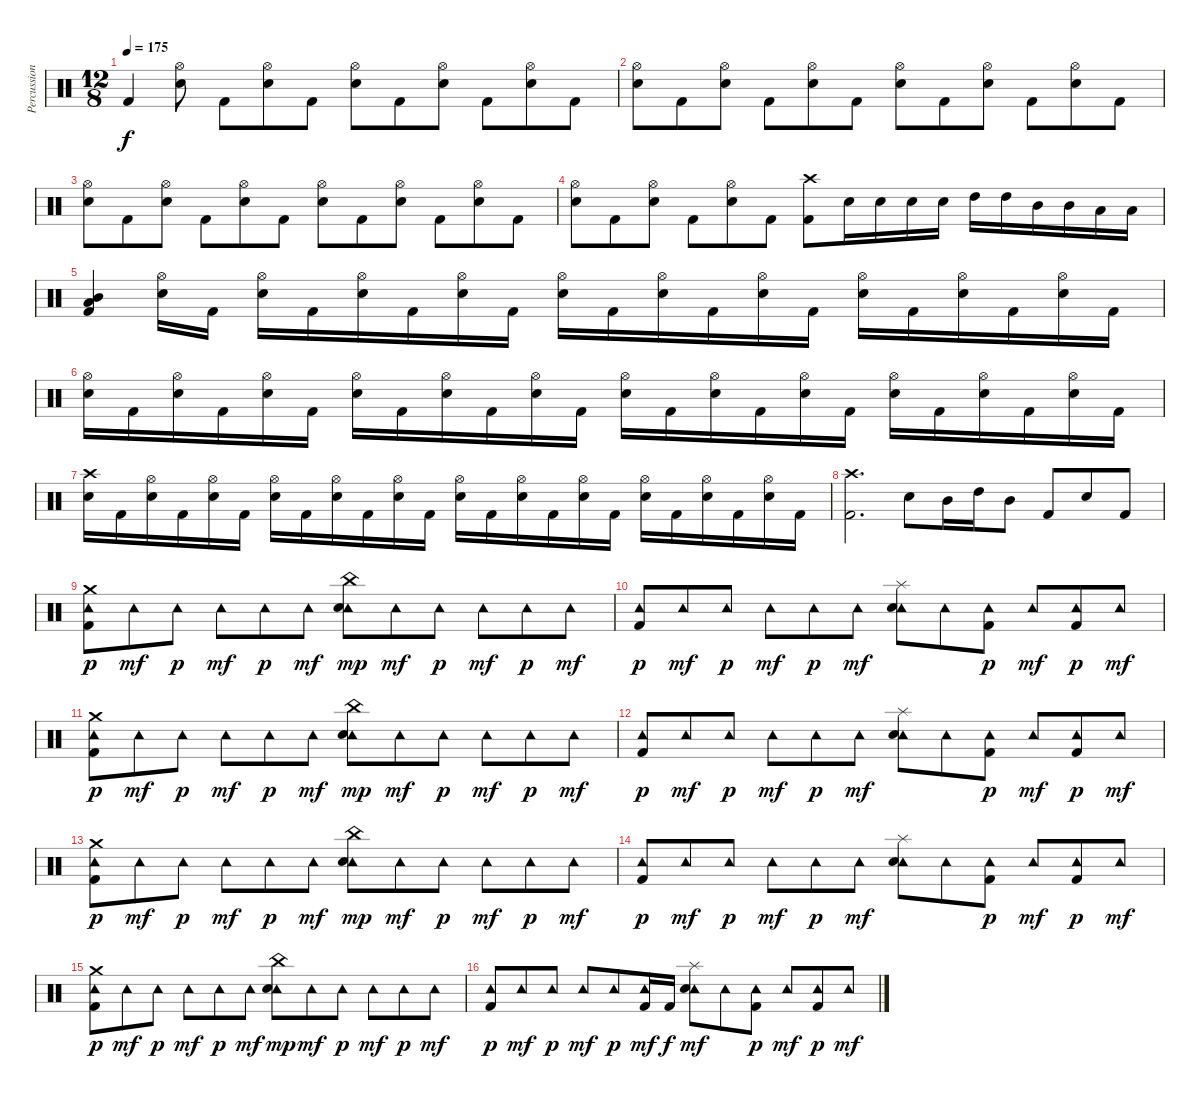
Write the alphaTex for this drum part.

\track ("Percussion" "Percussion") {instrument percussion}
\staff {score}
\articulation defaults
\ts (12 8)
\tempo 175
\clef neutral
\ks c "Kick (hit) 2".4{dy f}
("Hi-Hat (open)" "Electric Snare (hit)").8 "Kick (hit) 2".8 ("Hi-Hat (open)" "Electric Snare (hit)").8 "Kick (hit) 2".8 ("Hi-Hat (open)" "Electric Snare (hit)").8 "Kick (hit) 2".8 ("Hi-Hat (open)" "Electric Snare (hit)").8 "Kick (hit) 2".8 ("Hi-Hat (open)" "Electric Snare (hit)").8 "Kick (hit) 2".8 |
("Hi-Hat (open)" "Electric Snare (hit)").8 "Kick (hit) 2".8 ("Hi-Hat (open)" "Electric Snare (hit)").8 "Kick (hit) 2".8 ("Hi-Hat (open)" "Electric Snare (hit)").8 "Kick (hit) 2".8 ("Hi-Hat (open)" "Electric Snare (hit)").8 "Kick (hit) 2".8 ("Hi-Hat (open)" "Electric Snare (hit)").8 "Kick (hit) 2".8 ("Hi-Hat (open)" "Electric Snare (hit)").8 "Kick (hit) 2".8 |
("Hi-Hat (open)" "Electric Snare (hit)").8 "Kick (hit) 2".8 ("Hi-Hat (open)" "Electric Snare (hit)").8 "Kick (hit) 2".8 ("Hi-Hat (open)" "Electric Snare (hit)").8 "Kick (hit) 2".8 ("Hi-Hat (open)" "Electric Snare (hit)").8 "Kick (hit) 2".8 ("Hi-Hat (open)" "Electric Snare (hit)").8 "Kick (hit) 2".8 ("Hi-Hat (open)" "Electric Snare (hit)").8 "Kick (hit) 2".8 |
("Hi-Hat (open)" "Electric Snare (hit)").8 "Kick (hit) 2".8 ("Hi-Hat (open)" "Electric Snare (hit)").8 "Kick (hit) 2".8 ("Hi-Hat (open)" "Electric Snare (hit)").8 "Kick (hit) 2".8 ("Crash high (hit)" "Kick (hit) 2").8 "Electric Snare (hit)".16 "Electric Snare (hit)".16 "Electric Snare (hit)".16 "Electric Snare (hit)".16 "High Tom (hit)".16 "High Tom (hit)".16 "Mid Tom (hit)".16 "Mid Tom (hit)".16 "Low Tom (hit)".16 "Low Tom (hit)".16 |
("Mid Tom (hit)" "Low Tom (hit)" "Kick (hit) 2").4 ("Hi-Hat (open)" "Electric Snare (hit)").16 "Kick (hit) 2".16 ("Hi-Hat (open)" "Electric Snare (hit)").16 "Kick (hit) 2".16 ("Hi-Hat (open)" "Electric Snare (hit)").16 "Kick (hit) 2".16 ("Hi-Hat (open)" "Electric Snare (hit)").16 "Kick (hit) 2".16 ("Hi-Hat (open)" "Electric Snare (hit)").16 "Kick (hit) 2".16 ("Hi-Hat (open)" "Electric Snare (hit)").16 "Kick (hit) 2".16 ("Hi-Hat (open)" "Electric Snare (hit)").16 "Kick (hit) 2".16 ("Hi-Hat (open)" "Electric Snare (hit)").16 "Kick (hit) 2".16 ("Hi-Hat (open)" "Electric Snare (hit)").16 "Kick (hit) 2".16 ("Hi-Hat (open)" "Electric Snare (hit)").16 "Kick (hit) 2".16 |
("Hi-Hat (open)" "Electric Snare (hit)").16 "Kick (hit) 2".16 ("Hi-Hat (open)" "Electric Snare (hit)").16 "Kick (hit) 2".16 ("Hi-Hat (open)" "Electric Snare (hit)").16 "Kick (hit) 2".16 ("Hi-Hat (open)" "Electric Snare (hit)").16 "Kick (hit) 2".16 ("Hi-Hat (open)" "Electric Snare (hit)").16 "Kick (hit) 2".16 ("Hi-Hat (open)" "Electric Snare (hit)").16 "Kick (hit) 2".16 ("Hi-Hat (open)" "Electric Snare (hit)").16 "Kick (hit) 2".16 ("Hi-Hat (open)" "Electric Snare (hit)").16 "Kick (hit) 2".16 ("Hi-Hat (open)" "Electric Snare (hit)").16 "Kick (hit) 2".16 ("Hi-Hat (open)" "Electric Snare (hit)").16 "Kick (hit) 2".16 ("Hi-Hat (open)" "Electric Snare (hit)").16 "Kick (hit) 2".16 ("Hi-Hat (open)" "Electric Snare (hit)").16 "Kick (hit) 2".16 |
("Crash high (hit)" "Electric Snare (hit)").16 "Kick (hit) 2".16 ("Hi-Hat (open)" "Electric Snare (hit)").16 "Kick (hit) 2".16 ("Hi-Hat (open)" "Electric Snare (hit)").16 "Kick (hit) 2".16 ("Hi-Hat (open)" "Electric Snare (hit)").16 "Kick (hit) 2".16 ("Hi-Hat (open)" "Electric Snare (hit)").16 "Kick (hit) 2".16 ("Hi-Hat (open)" "Electric Snare (hit)").16 "Kick (hit) 2".16 ("Hi-Hat (open)" "Electric Snare (hit)").16 "Kick (hit) 2".16 ("Hi-Hat (open)" "Electric Snare (hit)").16 "Kick (hit) 2".16 ("Hi-Hat (open)" "Electric Snare (hit)").16 "Kick (hit) 2".16 ("Hi-Hat (open)" "Electric Snare (hit)").16 "Kick (hit) 2".16 ("Hi-Hat (open)" "Electric Snare (hit)").16 "Kick (hit) 2".16 ("Hi-Hat (open)" "Electric Snare (hit)").16 "Kick (hit) 2".16 |
("Crash high (hit)" "Kick (hit) 2").2{d} "Electric Snare (hit)".8 "Mid Tom (hit)".16 "High Tom (hit)".16 "Mid Tom (hit)".8 "Kick (hit) 2".8 "Electric Snare (hit)".8 "Kick (hit) 2".8 |
("Tambourine (hit)" "Crash medium (hit)" "Kick (hit) 2").8{dy p} "Tambourine (hit)".8{dy mf} "Tambourine (hit)".8{dy p} "Tambourine (hit)".8{dy mf} "Tambourine (hit)".8{dy p} "Tambourine (hit)".8{dy mf} ("Tambourine (hit)" "China (hit)" "Electric Snare (hit)").8{dy mp} "Tambourine (hit)".8{dy mf} "Tambourine (hit)".8{dy p} "Tambourine (hit)".8{dy mf} "Tambourine (hit)".8{dy p} "Tambourine (hit)".8{dy mf} |
("Tambourine (hit)" "Kick (hit) 2").8{dy p} "Tambourine (hit)".8{dy mf} "Tambourine (hit)".8{dy p} "Tambourine (hit)".8{dy mf} "Tambourine (hit)".8{dy p} "Tambourine (hit)".8{dy mf} ("Tambourine (hit)" "Splash (hit)" "Electric Snare (hit)").8 "Tambourine (hit)".8 ("Tambourine (hit)" "Kick (hit) 2").8{dy p} "Tambourine (hit)".8{dy mf} ("Tambourine (hit)" "Kick (hit) 2").8{dy p} "Tambourine (hit)".8{dy mf} |
("Tambourine (hit)" "Crash medium (hit)" "Kick (hit) 2").8{dy p} "Tambourine (hit)".8{dy mf} "Tambourine (hit)".8{dy p} "Tambourine (hit)".8{dy mf} "Tambourine (hit)".8{dy p} "Tambourine (hit)".8{dy mf} ("Tambourine (hit)" "China (hit)" "Electric Snare (hit)").8{dy mp} "Tambourine (hit)".8{dy mf} "Tambourine (hit)".8{dy p} "Tambourine (hit)".8{dy mf} "Tambourine (hit)".8{dy p} "Tambourine (hit)".8{dy mf} |
("Tambourine (hit)" "Kick (hit) 2").8{dy p} "Tambourine (hit)".8{dy mf} "Tambourine (hit)".8{dy p} "Tambourine (hit)".8{dy mf} "Tambourine (hit)".8{dy p} "Tambourine (hit)".8{dy mf} ("Tambourine (hit)" "Splash (hit)" "Electric Snare (hit)").8 "Tambourine (hit)".8 ("Tambourine (hit)" "Kick (hit) 2").8{dy p} "Tambourine (hit)".8{dy mf} ("Tambourine (hit)" "Kick (hit) 2").8{dy p} "Tambourine (hit)".8{dy mf} |
("Tambourine (hit)" "Crash medium (hit)" "Kick (hit) 2").8{dy p} "Tambourine (hit)".8{dy mf} "Tambourine (hit)".8{dy p} "Tambourine (hit)".8{dy mf} "Tambourine (hit)".8{dy p} "Tambourine (hit)".8{dy mf} ("Tambourine (hit)" "China (hit)" "Electric Snare (hit)").8{dy mp} "Tambourine (hit)".8{dy mf} "Tambourine (hit)".8{dy p} "Tambourine (hit)".8{dy mf} "Tambourine (hit)".8{dy p} "Tambourine (hit)".8{dy mf} |
("Tambourine (hit)" "Kick (hit) 2").8{dy p} "Tambourine (hit)".8{dy mf} "Tambourine (hit)".8{dy p} "Tambourine (hit)".8{dy mf} "Tambourine (hit)".8{dy p} "Tambourine (hit)".8{dy mf} ("Tambourine (hit)" "Splash (hit)" "Electric Snare (hit)").8 "Tambourine (hit)".8 ("Tambourine (hit)" "Kick (hit) 2").8{dy p} "Tambourine (hit)".8{dy mf} ("Tambourine (hit)" "Kick (hit) 2").8{dy p} "Tambourine (hit)".8{dy mf} |
("Tambourine (hit)" "Crash medium (hit)" "Kick (hit) 2").8{dy p} "Tambourine (hit)".8{dy mf} "Tambourine (hit)".8{dy p} "Tambourine (hit)".8{dy mf} "Tambourine (hit)".8{dy p} "Tambourine (hit)".8{dy mf} ("Tambourine (hit)" "China (hit)" "Electric Snare (hit)").8{dy mp} "Tambourine (hit)".8{dy mf} "Tambourine (hit)".8{dy p} "Tambourine (hit)".8{dy mf} "Tambourine (hit)".8{dy p} "Tambourine (hit)".8{dy mf} |
("Tambourine (hit)" "Kick (hit) 2").8{dy p} "Tambourine (hit)".8{dy mf} "Tambourine (hit)".8{dy p} "Tambourine (hit)".8{dy mf} "Tambourine (hit)".8{dy p} ("Tambourine (hit)" "Kick (hit) 2").16{dy mf} "Kick (hit) 2".16{dy f} ("Tambourine (hit)" "Splash (hit)" "Electric Snare (hit)").8{dy mf} "Tambourine (hit)".8 ("Tambourine (hit)" "Kick (hit) 2").8{dy p} "Tambourine (hit)".8{dy mf} ("Tambourine (hit)" "Kick (hit) 2").8{dy p} "Tambourine (hit)".8{dy mf}
